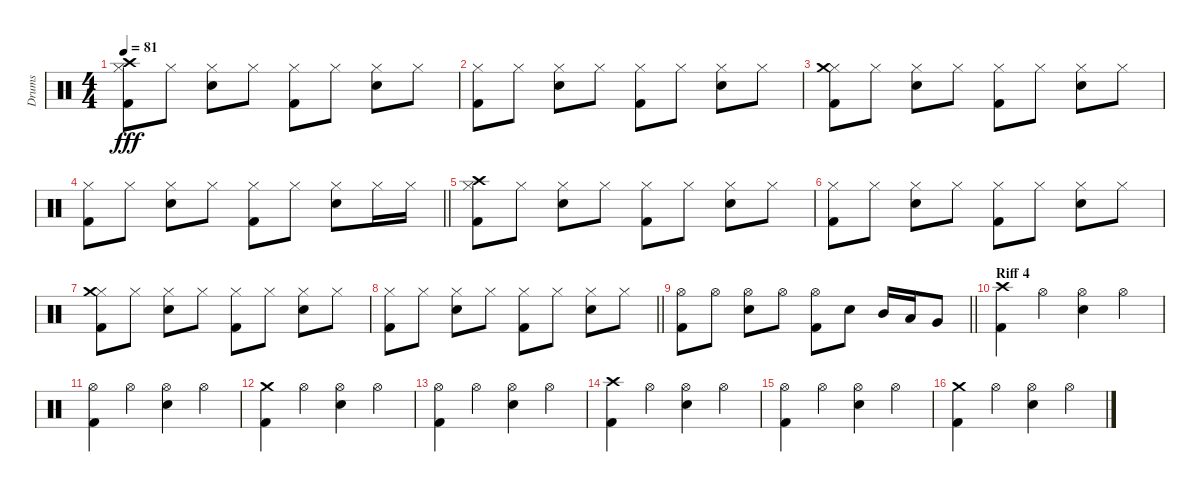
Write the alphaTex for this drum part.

\track ("Drums" "Drums") {instrument percussion}
\staff {score}
\articulation defaults
\ts (4 4)
\tempo 81
\clef neutral
\ks c
("Hi-Hat (closed)" "Crash high (hit)" "Kick (hit) 2").8{dy fff} "Hi-Hat (closed)".8 ("Hi-Hat (closed)" "Electric Snare (hit)").8 "Hi-Hat (closed)".8 ("Hi-Hat (closed)" "Kick (hit) 2").8 "Hi-Hat (closed)".8 ("Hi-Hat (closed)" "Electric Snare (hit)").8 "Hi-Hat (closed)".8 |
("Hi-Hat (closed)" "Kick (hit) 2").8 "Hi-Hat (closed)".8 ("Hi-Hat (closed)" "Electric Snare (hit)").8 "Hi-Hat (closed)".8 ("Hi-Hat (closed)" "Kick (hit) 2").8 "Hi-Hat (closed)".8 ("Hi-Hat (closed)" "Electric Snare (hit)").8 "Hi-Hat (closed)".8 |
("Hi-Hat (closed)" "Crash medium (hit)" "Kick (hit) 2").8 "Hi-Hat (closed)".8 ("Hi-Hat (closed)" "Electric Snare (hit)").8 "Hi-Hat (closed)".8 ("Hi-Hat (closed)" "Kick (hit) 2").8 "Hi-Hat (closed)".8 ("Hi-Hat (closed)" "Electric Snare (hit)").8 "Hi-Hat (closed)".8 |
\barLineRight lightlight
("Hi-Hat (closed)" "Kick (hit) 2").8 "Hi-Hat (closed)".8 ("Hi-Hat (closed)" "Electric Snare (hit)").8 "Hi-Hat (closed)".8 ("Hi-Hat (closed)" "Kick (hit) 2").8 "Hi-Hat (closed)".8 ("Hi-Hat (closed)" "Electric Snare (hit)").8 "Hi-Hat (closed)".16 "Hi-Hat (closed)".16 |
("Hi-Hat (closed)" "Crash high (hit)" "Kick (hit) 2").8 "Hi-Hat (closed)".8 ("Hi-Hat (closed)" "Electric Snare (hit)").8 "Hi-Hat (closed)".8 ("Hi-Hat (closed)" "Kick (hit) 2").8 "Hi-Hat (closed)".8 ("Hi-Hat (closed)" "Electric Snare (hit)").8 "Hi-Hat (closed)".8 |
("Hi-Hat (closed)" "Kick (hit) 2").8 "Hi-Hat (closed)".8 ("Hi-Hat (closed)" "Electric Snare (hit)").8 "Hi-Hat (closed)".8 ("Hi-Hat (closed)" "Kick (hit) 2").8 "Hi-Hat (closed)".8 ("Hi-Hat (closed)" "Electric Snare (hit)").8 "Hi-Hat (closed)".8 |
("Hi-Hat (closed)" "Crash medium (hit)" "Kick (hit) 2").8 "Hi-Hat (closed)".8 ("Hi-Hat (closed)" "Electric Snare (hit)").8 "Hi-Hat (closed)".8 ("Hi-Hat (closed)" "Kick (hit) 2").8 "Hi-Hat (closed)".8 ("Hi-Hat (closed)" "Electric Snare (hit)").8 "Hi-Hat (closed)".8 |
\barLineRight lightlight
("Hi-Hat (closed)" "Kick (hit) 2").8 "Hi-Hat (closed)".8 ("Hi-Hat (closed)" "Electric Snare (hit)").8 "Hi-Hat (closed)".8 ("Hi-Hat (closed)" "Kick (hit) 2").8 "Hi-Hat (closed)".8 ("Hi-Hat (closed)" "Electric Snare (hit)").8 "Hi-Hat (closed)".8 |
\barLineRight lightlight
("Hi-Hat (open)" "Kick (hit) 2").8 "Hi-Hat (open)".8 ("Hi-Hat (open)" "Electric Snare (hit)").8 "Hi-Hat (open)".8 ("Hi-Hat (open)" "Kick (hit) 2").8 "Electric Snare (hit)".8 "Mid Tom (hit)".16 "Low Tom (hit)".16 "Very Low Tom (hit)".8 |
\section ("" "Riff 4")
("Crash high (hit)" "Kick (hit) 2").4 "Hi-Hat (open)".4 ("Hi-Hat (open)" "Electric Snare (hit)").4 "Hi-Hat (open)".4 |
("Hi-Hat (open)" "Kick (hit) 2").4 "Hi-Hat (open)".4 ("Hi-Hat (open)" "Electric Snare (hit)").4 "Hi-Hat (open)".4 |
("Crash medium (hit)" "Kick (hit) 2").4 "Hi-Hat (open)".4 ("Hi-Hat (open)" "Electric Snare (hit)").4 "Hi-Hat (open)".4 |
("Hi-Hat (open)" "Kick (hit) 2").4 "Hi-Hat (open)".4 ("Hi-Hat (open)" "Electric Snare (hit)").4 "Hi-Hat (open)".4 |
("Crash high (hit)" "Kick (hit) 2").4 "Hi-Hat (open)".4 ("Hi-Hat (open)" "Electric Snare (hit)").4 "Hi-Hat (open)".4 |
("Hi-Hat (open)" "Kick (hit) 2").4 "Hi-Hat (open)".4 ("Hi-Hat (open)" "Electric Snare (hit)").4 "Hi-Hat (open)".4 |
("Crash medium (hit)" "Kick (hit) 2").4 "Hi-Hat (open)".4 ("Hi-Hat (open)" "Electric Snare (hit)").4 "Hi-Hat (open)".4
